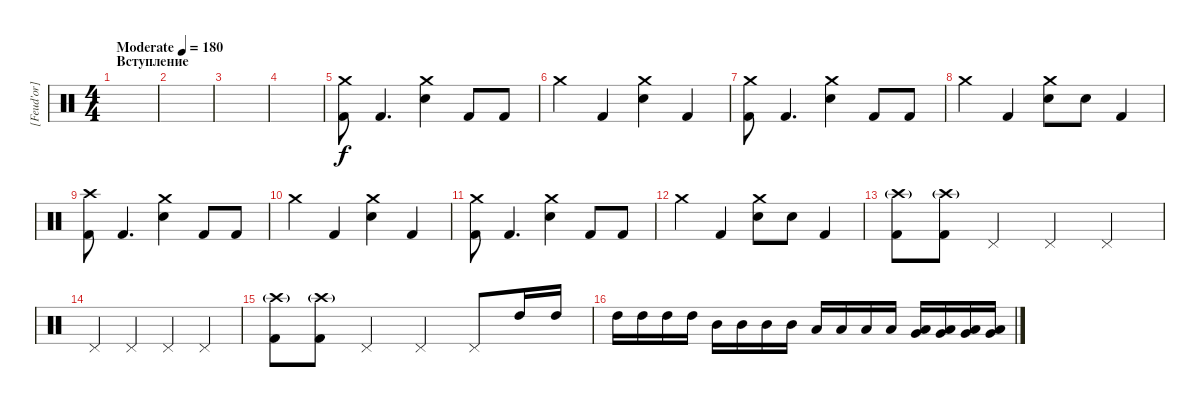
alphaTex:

\track ("[Feud'or] - Drums" "[Feud'or] ") {instrument percussion}
\staff {score}
\articulation defaults
\ts (4 4)
\section ("" "Вступление")
\tempo (180 "Moderate")
\clef neutral
\ks c
|
|
|
|
("Crash medium (hit)" "Kick (hit) 2").8 "Kick (hit) 2".4{d} ("Crash medium (hit)" "Snare (hit) 2").4 "Kick (hit) 2".8 "Kick (hit) 2".8 |
"Crash medium (hit)".4 "Kick (hit) 2".4 ("Crash medium (hit)" "Snare (hit) 2").4 "Kick (hit) 2".4 |
("Crash medium (hit)" "Kick (hit) 2").8 "Kick (hit) 2".4{d} ("Crash medium (hit)" "Snare (hit) 2").4 "Kick (hit) 2".8 "Kick (hit) 2".8 |
"Crash medium (hit)".4 "Kick (hit) 2".4 ("Crash medium (hit)" "Snare (hit) 2").8 "Snare (hit) 2".8 "Kick (hit) 2".4 |
("Crash high (hit)" "Kick (hit) 2").8 "Kick (hit) 2".4{d} ("Crash medium (hit)" "Snare (hit) 2").4 "Kick (hit) 2".8 "Kick (hit) 2".8 |
"Crash medium (hit)".4 "Kick (hit) 2".4 ("Crash medium (hit)" "Snare (hit) 2").4 "Kick (hit) 2".4 |
("Crash medium (hit)" "Kick (hit) 2").8 "Kick (hit) 2".4{d} ("Crash medium (hit)" "Snare (hit) 2").4 "Kick (hit) 2".8 "Kick (hit) 2".8 |
"Crash medium (hit)".4 "Kick (hit) 2".4 ("Crash medium (hit)" "Snare (hit) 2").8 "Snare (hit) 2".8 "Kick (hit) 2".4 |
("Crash high (hit)"{g} "Kick (hit) 2").8 ("Crash high (hit)"{g} "Kick (hit) 2").8 "Pedal Hi-Hat (hit)".4 "Pedal Hi-Hat (hit)".4 "Pedal Hi-Hat (hit)".4 |
"Pedal Hi-Hat (hit)".4 "Pedal Hi-Hat (hit)".4 "Pedal Hi-Hat (hit)".4 "Pedal Hi-Hat (hit)".4 |
("Crash high (hit)"{g} "Kick (hit) 2").8 ("Crash high (hit)"{g} "Kick (hit) 2").8 "Pedal Hi-Hat (hit)".4 "Pedal Hi-Hat (hit)".4 "Pedal Hi-Hat (hit)".8 "High Tom (hit)".16 "High Tom (hit)".16 |
"High Tom (hit)".16 "High Tom (hit)".16 "High Tom (hit)".16 "High Tom (hit)".16 "Mid Tom (hit)".16 "Mid Tom (hit)".16 "Mid Tom (hit)".16 "Mid Tom (hit)".16 "Low Tom (hit)".16 "Low Tom (hit)".16 "Low Tom (hit)".16 "Low Tom (hit)".16 ("Very Low Tom (hit)" "Low Floor Tom (hit)").16 ("Very Low Tom (hit)" "Low Floor Tom (hit)").16 ("Very Low Tom (hit)" "Low Floor Tom (hit)").16 ("Very Low Tom (hit)" "Low Floor Tom (hit)").16
